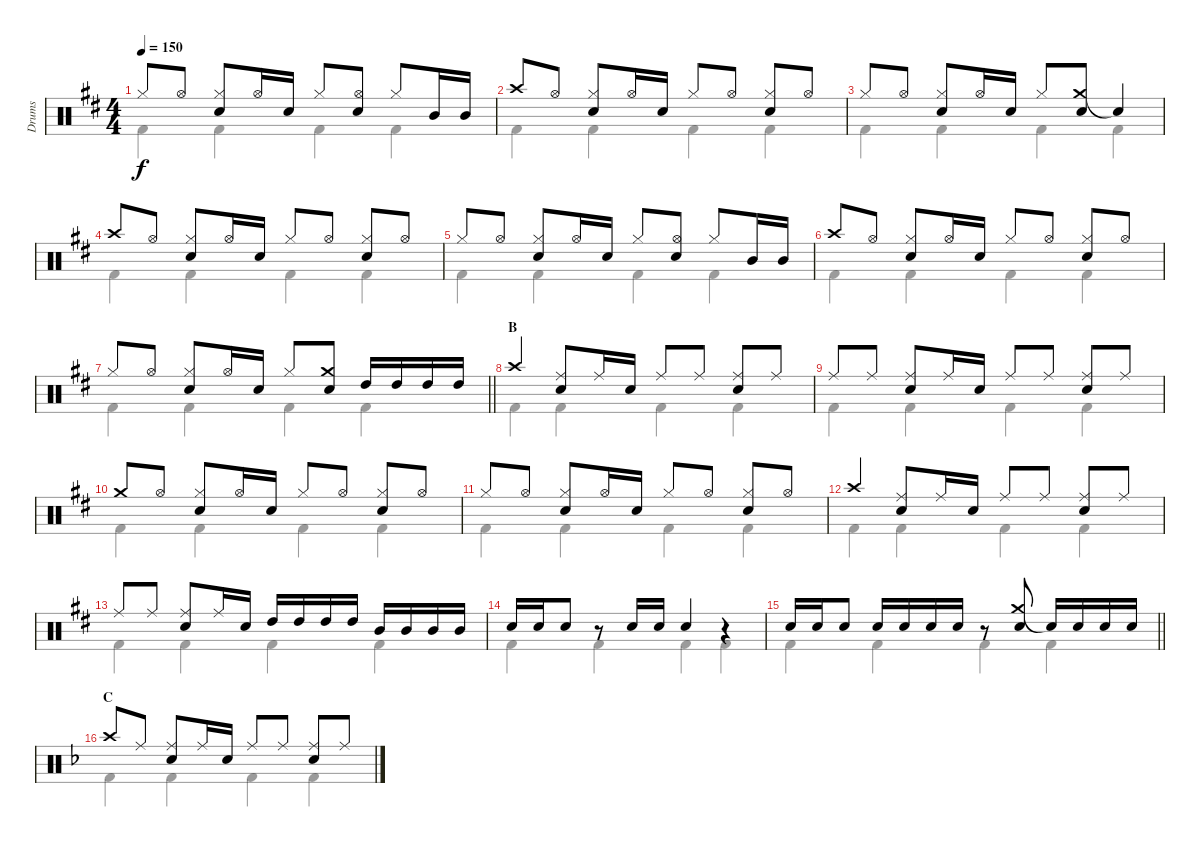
\track ("Drums" "Drums") {instrument percussion}
\staff {score}
\articulation defaults
\voice
\ts (4 4)
\tempo 150
\clef neutral
\ks d "Hi-Hat (closed)".8{dy f} "Hi-Hat (open)".8
("Hi-Hat (closed)" "Snare (hit) 2").8 "Hi-Hat (open)".16 "Snare (hit) 2".16 "Hi-Hat (closed)".8 ("Hi-Hat (open)" "Snare (hit) 2").8 "Hi-Hat (closed)".8 "Mid Tom (hit)".16 "Mid Tom (hit)".16 |
"Crash high (hit)".8 "Hi-Hat (open)".8 ("Hi-Hat (closed)" "Snare (hit) 2").8 "Hi-Hat (open)".16 "Snare (hit) 2".16 "Hi-Hat (closed)".8 "Hi-Hat (open)".8 ("Hi-Hat (closed)" "Snare (hit) 2").8 "Hi-Hat (open)".8 |
"Hi-Hat (closed)".8 "Hi-Hat (open)".8 ("Hi-Hat (closed)" "Snare (hit) 2").8 "Hi-Hat (open)".16 "Snare (hit) 2".16 "Hi-Hat (closed)".8 ("Crash medium (hit)" "Snare (hit) 2").8 "Snare (hit)"{t}.4 |
"Crash high (hit)".8 "Hi-Hat (open)".8 ("Hi-Hat (closed)" "Snare (hit) 2").8 "Hi-Hat (open)".16 "Snare (hit) 2".16 "Hi-Hat (closed)".8 "Hi-Hat (open)".8 ("Hi-Hat (closed)" "Snare (hit) 2").8 "Hi-Hat (open)".8 |
"Hi-Hat (closed)".8 "Hi-Hat (open)".8 ("Hi-Hat (closed)" "Snare (hit) 2").8 "Hi-Hat (open)".16 "Snare (hit) 2".16 "Hi-Hat (closed)".8 ("Hi-Hat (open)" "Snare (hit) 2").8 "Hi-Hat (closed)".8 "Mid Tom (hit)".16 "Mid Tom (hit)".16 |
"Crash high (hit)".8 "Hi-Hat (open)".8 ("Hi-Hat (closed)" "Snare (hit) 2").8 "Hi-Hat (open)".16 "Snare (hit) 2".16 "Hi-Hat (closed)".8 "Hi-Hat (open)".8 ("Hi-Hat (closed)" "Snare (hit) 2").8 "Hi-Hat (open)".8 |
\barLineRight lightlight "Hi-Hat (closed)".8 "Hi-Hat (open)".8
("Hi-Hat (closed)" "Snare (hit) 2").8 "Hi-Hat (open)".16 "Snare (hit) 2".16 "Hi-Hat (closed)".8 ("Crash medium (hit)" "Snare (hit) 2").8 "High Tom (hit)".16 "High Tom (hit)".16 "High Tom (hit)".16 "High Tom (hit)".16 |
\section ("" "B")
"Crash high (hit)".4 ("Ride (middle)" "Snare (hit) 2").8 "Ride (middle)".16 "Snare (hit) 2".16 "Ride (middle)".8 "Ride (middle)".8 ("Ride (middle)" "Snare (hit) 2").8 "Ride (middle)".8 |
"Ride (middle)".8 "Ride (middle)".8 ("Ride (middle)" "Snare (hit) 2").8 "Ride (middle)".16 "Snare (hit) 2".16 "Ride (middle)".8 "Ride (middle)".8 ("Ride (middle)" "Snare (hit) 2").8 "Ride (middle)".8 |
"Crash medium (hit)".8 "Hi-Hat (open)".8 ("Hi-Hat (closed)" "Snare (hit) 2").8 "Hi-Hat (open)".16 "Snare (hit) 2".16 "Hi-Hat (closed)".8 "Hi-Hat (open)".8 ("Hi-Hat (closed)" "Snare (hit) 2").8 "Hi-Hat (open)".8 |
"Hi-Hat (closed)".8 "Hi-Hat (open)".8 ("Hi-Hat (closed)" "Snare (hit) 2").8 "Hi-Hat (open)".16 "Snare (hit) 2".16 "Hi-Hat (closed)".8 "Hi-Hat (open)".8 ("Hi-Hat (closed)" "Snare (hit) 2").8 "Hi-Hat (open)".8 |
"Crash high (hit)".4 ("Ride (middle)" "Snare (hit) 2").8 "Ride (middle)".16 "Snare (hit) 2".16 "Ride (middle)".8 "Ride (middle)".8 ("Ride (middle)" "Snare (hit) 2").8 "Ride (middle)".8 |
"Ride (middle)".8 "Ride (middle)".8 ("Ride (middle)" "Snare (hit) 2").8 "Ride (middle)".16 "Snare (hit) 2".16 "High Tom (hit)".16 "High Tom (hit)".16 "High Tom (hit)".16 "High Tom (hit)".16 "Mid Tom (hit)".16 "Mid Tom (hit)".16 "Mid Tom (hit)".16 "Mid Tom (hit)".16 |
"Snare (hit) 2".16 "Snare (hit) 2".16 "Snare (hit) 2".8 r.8 "Snare (hit) 2".16 "Snare (hit) 2".16 "Snare (hit) 2".4 r.4 |
\barLineRight lightlight "Snare (hit) 2".16 "Snare (hit) 2".16 "Snare (hit) 2".8 "Snare (hit) 2".16 "Snare (hit) 2".16 "Snare (hit) 2".16 "Snare (hit) 2".16
r.8 ("Crash medium (hit)" "Snare (hit) 2").8 "Snare (hit)"{t}.16 "Snare (hit) 2".16 "Snare (hit) 2".16 "Snare (hit) 2".16 |
\section ("" "C")
\ks f "Crash high (hit)".8 "Ride (middle)".8
("Ride (middle)" "Snare (hit) 2").8 "Ride (middle)".16 "Snare (hit) 2".16 "Ride (middle)".8 "Ride (middle)".8 ("Ride (middle)" "Snare (hit) 2").8 "Ride (middle)".8
\voice
\clef neutral
\ottava regular
\simile none
\ks d "Kick (hit) 2".4{dy f} "Kick (hit) 2".4 "Kick (hit) 2".4 "Kick (hit) 2".4
|
"Kick (hit) 2".4 "Kick (hit) 2".4 "Kick (hit) 2".4 "Kick (hit) 2".4 |
"Kick (hit) 2".4 "Kick (hit) 2".4 "Kick (hit) 2".4 "Kick (hit) 2".4 |
"Kick (hit) 2".4 "Kick (hit) 2".4 "Kick (hit) 2".4 "Kick (hit) 2".4 |
"Kick (hit) 2".4 "Kick (hit) 2".4 "Kick (hit) 2".4 "Kick (hit) 2".4 |
"Kick (hit) 2".4 "Kick (hit) 2".4 "Kick (hit) 2".4 "Kick (hit) 2".4 |
\barLineRight lightlight "Kick (hit) 2".4 "Kick (hit) 2".4 "Kick (hit) 2".4 "Kick (hit) 2".4
|
"Kick (hit) 2".4 "Kick (hit) 2".4 "Kick (hit) 2".4 "Kick (hit) 2".4 |
"Kick (hit) 2".4 "Kick (hit) 2".4 "Kick (hit) 2".4 "Kick (hit) 2".4 |
"Kick (hit) 2".4 "Kick (hit) 2".4 "Kick (hit) 2".4 "Kick (hit) 2".4 |
"Kick (hit) 2".4 "Kick (hit) 2".4 "Kick (hit) 2".4 "Kick (hit) 2".4 |
"Kick (hit) 2".4 "Kick (hit) 2".4 "Kick (hit) 2".4 "Kick (hit) 2".4 |
"Kick (hit) 2".4 "Kick (hit) 2".4 "Kick (hit) 2".4 "Kick (hit) 2".4 |
"Kick (hit) 2".4 "Kick (hit) 2".4 "Kick (hit) 2".4 "Kick (hit) 2".4 |
\barLineRight lightlight "Kick (hit) 2".4 "Kick (hit) 2".4 "Kick (hit) 2".4 "Kick (hit) 2".4
|
\ks f "Kick (hit) 2".4 "Kick (hit) 2".4 "Kick (hit) 2".4 "Kick (hit) 2".4
